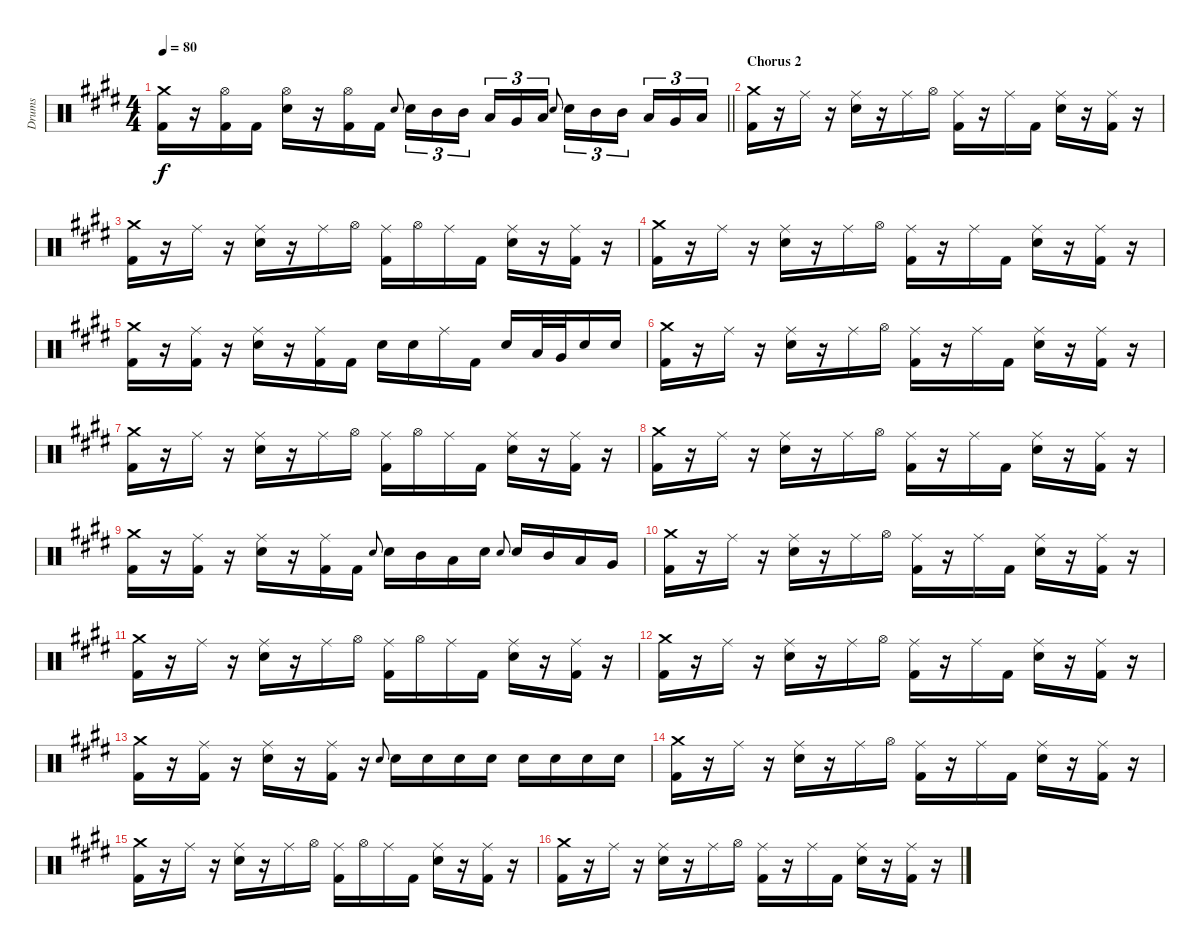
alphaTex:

\track ("Drums" "Drums") {instrument percussion}
\staff {score}
\articulation defaults
\ts (4 4)
\tempo 80
\clef neutral
\barLineRight lightlight
\ks e
("Crash medium (hit)" "Kick (hit) 2").16{dy f} r.16 ("Hi-Hat (open)" "Kick (hit) 2").16 "Kick (hit) 2".16 ("Hi-Hat (open)" "Snare (hit) 2").16 r.16 ("Hi-Hat (open)" "Kick (hit) 2").16 "Kick (hit) 2".16 "Snare (hit) 2".8{gr onbeat} "Snare (hit) 2".16{tu (3 2)} "Mid Tom (hit)".16{tu (3 2)} "Mid Tom (hit)".16{tu (3 2) beam splitsecondary} "Low Tom (hit)".16{tu (3 2)} "Very Low Tom (hit)".16{tu (3 2)} "Low Floor Tom (hit)".16{tu (3 2)} "Snare (hit) 2".8{gr onbeat} "Snare (hit) 2".16{tu (3 2)} "Mid Tom (hit)".16{tu (3 2)} "Mid Tom (hit)".16{tu (3 2) beam splitsecondary} "Low Tom (hit)".16{tu (3 2)} "Very Low Tom (hit)".16{tu (3 2)} "Low Floor Tom (hit)".16{tu (3 2)} |
\section ("" "Chorus 2")
("Crash medium (hit)" "Kick (hit) 2").16 r.16 "Ride (middle)".16 r.16 ("Ride (middle)" "Snare (hit) 2").16 r.16 "Ride (middle)".16 "Hi-Hat (open)".16 ("Ride (middle)" "Kick (hit) 2").16 r.16 "Ride (middle)".16 "Kick (hit) 2".16 ("Ride (middle)" "Snare (hit) 2").16 r.16 ("Ride (middle)" "Kick (hit) 2").16 r.16 |
("Crash medium (hit)" "Kick (hit) 2").16 r.16 "Ride (middle)".16 r.16 ("Ride (middle)" "Snare (hit) 2").16 r.16 "Ride (middle)".16 "Hi-Hat (open)".16 ("Ride (middle)" "Kick (hit) 2").16 "Hi-Hat (open)".16 "Ride (middle)".16 "Kick (hit) 2".16 ("Ride (middle)" "Snare (hit) 2").16 r.16 ("Ride (middle)" "Kick (hit) 2").16 r.16 |
("Crash medium (hit)" "Kick (hit) 2").16 r.16 "Ride (middle)".16 r.16 ("Ride (middle)" "Snare (hit) 2").16 r.16 "Ride (middle)".16 "Hi-Hat (open)".16 ("Ride (middle)" "Kick (hit) 2").16 r.16 "Ride (middle)".16 "Kick (hit) 2".16 ("Ride (middle)" "Snare (hit) 2").16 r.16 ("Ride (middle)" "Kick (hit) 2").16 r.16 |
("Crash medium (hit)" "Kick (hit) 2").16 r.16 ("Ride (middle)" "Kick (hit) 2").16 r.16 ("Ride (middle)" "Snare (hit) 2").16 r.16 ("Ride (middle)" "Kick (hit) 2").16 "Kick (hit) 2".16 "Snare (hit) 2".16 "Snare (hit) 2".16 "Ride (middle)".16 "Kick (hit) 2".16 "Snare (hit) 2".16 "Low Tom (hit)".32 "Very Low Tom (hit)".32 "Snare (hit) 2".16 "Snare (hit) 2".16 |
("Crash medium (hit)" "Kick (hit) 2").16 r.16 "Ride (middle)".16 r.16 ("Ride (middle)" "Snare (hit) 2").16 r.16 "Ride (middle)".16 "Hi-Hat (open)".16 ("Ride (middle)" "Kick (hit) 2").16 r.16 "Ride (middle)".16 "Kick (hit) 2".16 ("Ride (middle)" "Snare (hit) 2").16 r.16 ("Ride (middle)" "Kick (hit) 2").16 r.16 |
("Crash medium (hit)" "Kick (hit) 2").16 r.16 "Ride (middle)".16 r.16 ("Ride (middle)" "Snare (hit) 2").16 r.16 "Ride (middle)".16 "Hi-Hat (open)".16 ("Ride (middle)" "Kick (hit) 2").16 "Hi-Hat (open)".16 "Ride (middle)".16 "Kick (hit) 2".16 ("Ride (middle)" "Snare (hit) 2").16 r.16 ("Ride (middle)" "Kick (hit) 2").16 r.16 |
("Crash medium (hit)" "Kick (hit) 2").16 r.16 "Ride (middle)".16 r.16 ("Ride (middle)" "Snare (hit) 2").16 r.16 "Ride (middle)".16 "Hi-Hat (open)".16 ("Ride (middle)" "Kick (hit) 2").16 r.16 "Ride (middle)".16 "Kick (hit) 2".16 ("Ride (middle)" "Snare (hit) 2").16 r.16 ("Ride (middle)" "Kick (hit) 2").16 r.16 |
("Crash medium (hit)" "Kick (hit) 2").16 r.16 ("Ride (middle)" "Kick (hit) 2").16 r.16 ("Ride (middle)" "Snare (hit) 2").16 r.16 ("Ride (middle)" "Kick (hit) 2").16 "Kick (hit) 2".16 "Snare (hit) 2".8{gr onbeat} "Snare (hit) 2".16 "Mid Tom (hit)".16 "Low Tom (hit)".16 "Snare (hit) 2".16 "Snare (hit) 2".8{gr onbeat} "Snare (hit) 2".16 "Mid Tom (hit)".16 "Low Tom (hit)".16 "Very Low Tom (hit)".16 |
("Crash medium (hit)" "Kick (hit) 2").16 r.16 "Ride (middle)".16 r.16 ("Ride (middle)" "Snare (hit) 2").16 r.16 "Ride (middle)".16 "Hi-Hat (open)".16 ("Ride (middle)" "Kick (hit) 2").16 r.16 "Ride (middle)".16 "Kick (hit) 2".16 ("Ride (middle)" "Snare (hit) 2").16 r.16 ("Ride (middle)" "Kick (hit) 2").16 r.16 |
("Crash medium (hit)" "Kick (hit) 2").16 r.16 "Ride (middle)".16 r.16 ("Ride (middle)" "Snare (hit) 2").16 r.16 "Ride (middle)".16 "Hi-Hat (open)".16 ("Ride (middle)" "Kick (hit) 2").16 "Hi-Hat (open)".16 "Ride (middle)".16 "Kick (hit) 2".16 ("Ride (middle)" "Snare (hit) 2").16 r.16 ("Ride (middle)" "Kick (hit) 2").16 r.16 |
("Crash medium (hit)" "Kick (hit) 2").16 r.16 "Ride (middle)".16 r.16 ("Ride (middle)" "Snare (hit) 2").16 r.16 "Ride (middle)".16 "Hi-Hat (open)".16 ("Ride (middle)" "Kick (hit) 2").16 r.16 "Ride (middle)".16 "Kick (hit) 2".16 ("Ride (middle)" "Snare (hit) 2").16 r.16 ("Ride (middle)" "Kick (hit) 2").16 r.16 |
("Crash medium (hit)" "Kick (hit) 2").16 r.16 ("Ride (middle)" "Kick (hit) 2").16 r.16 ("Ride (middle)" "Snare (hit) 2").16 r.16 ("Ride (middle)" "Kick (hit) 2").16 r.16 "Snare (hit) 2".8{gr onbeat} "Snare (hit) 2".16 "Snare (hit) 2".16 "Snare (hit) 2".16 "Snare (hit) 2".16 "Snare (hit) 2".16 "Snare (hit) 2".16 "Snare (hit) 2".16 "Snare (hit) 2".16 |
("Crash medium (hit)" "Kick (hit) 2").16 r.16 "Ride (middle)".16 r.16 ("Ride (middle)" "Snare (hit) 2").16 r.16 "Ride (middle)".16 "Hi-Hat (open)".16 ("Ride (middle)" "Kick (hit) 2").16 r.16 "Ride (middle)".16 "Kick (hit) 2".16 ("Ride (middle)" "Snare (hit) 2").16 r.16 ("Ride (middle)" "Kick (hit) 2").16 r.16 |
("Crash medium (hit)" "Kick (hit) 2").16 r.16 "Ride (middle)".16 r.16 ("Ride (middle)" "Snare (hit) 2").16 r.16 "Ride (middle)".16 "Hi-Hat (open)".16 ("Ride (middle)" "Kick (hit) 2").16 "Hi-Hat (open)".16 "Ride (middle)".16 "Kick (hit) 2".16 ("Ride (middle)" "Snare (hit) 2").16 r.16 ("Ride (middle)" "Kick (hit) 2").16 r.16 |
("Crash medium (hit)" "Kick (hit) 2").16 r.16 "Ride (middle)".16 r.16 ("Ride (middle)" "Snare (hit) 2").16 r.16 "Ride (middle)".16 "Hi-Hat (open)".16 ("Ride (middle)" "Kick (hit) 2").16 r.16 "Ride (middle)".16 "Kick (hit) 2".16 ("Ride (middle)" "Snare (hit) 2").16 r.16 ("Ride (middle)" "Kick (hit) 2").16 r.16
